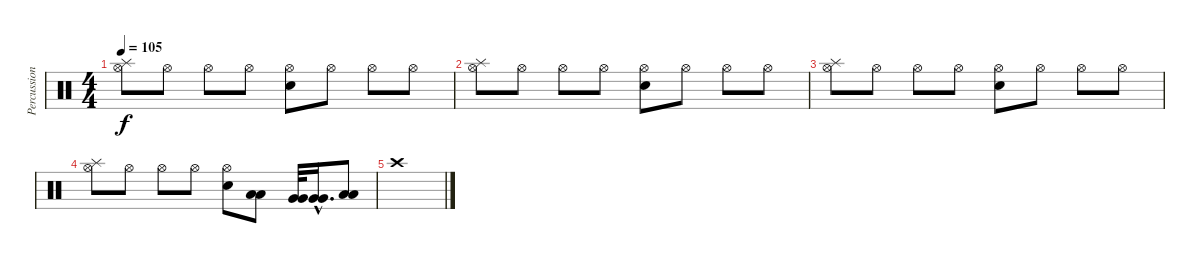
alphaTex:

\track ("Percussions" "Percussion") {instrument percussion}
\staff {score}
\articulation defaults
\ts (4 4)
\tempo 105
\clef neutral
\ks c
("Splash (hit)" "Hi-Hat (open)").8{dy f} "Hi-Hat (open)".8 "Hi-Hat (open)".8 "Hi-Hat (open)".8 ("Electric Snare (hit)" "Hi-Hat (open)").8 "Hi-Hat (open)".8 "Hi-Hat (open)".8 "Hi-Hat (open)".8 |
("Splash (hit)" "Hi-Hat (open)").8 "Hi-Hat (open)".8 "Hi-Hat (open)".8 "Hi-Hat (open)".8 ("Electric Snare (hit)" "Hi-Hat (open)").8 "Hi-Hat (open)".8 "Hi-Hat (open)".8 "Hi-Hat (open)".8 |
("Splash (hit)" "Hi-Hat (open)").8 "Hi-Hat (open)".8 "Hi-Hat (open)".8 "Hi-Hat (open)".8 ("Electric Snare (hit)" "Hi-Hat (open)").8 "Hi-Hat (open)".8 "Hi-Hat (open)".8 "Hi-Hat (open)".8 |
("Splash (hit)" "Hi-Hat (open)").8 "Hi-Hat (open)".8 "Hi-Hat (open)".8 "Hi-Hat (open)".8 ("Electric Snare (hit)" "Hi-Hat (open)").8 ("Low Tom (hit)" "Low Tom (hit)").8 ("Very Low Tom (hit)" "Very Low Tom (hit)").32 ("Very Low Tom (hit)"{hac} "Very Low Tom (hit)"{hac}).16{d} ("Low Floor Tom (hit)" "Low Floor Tom (hit)").8 |
"Crash high (hit)".1
